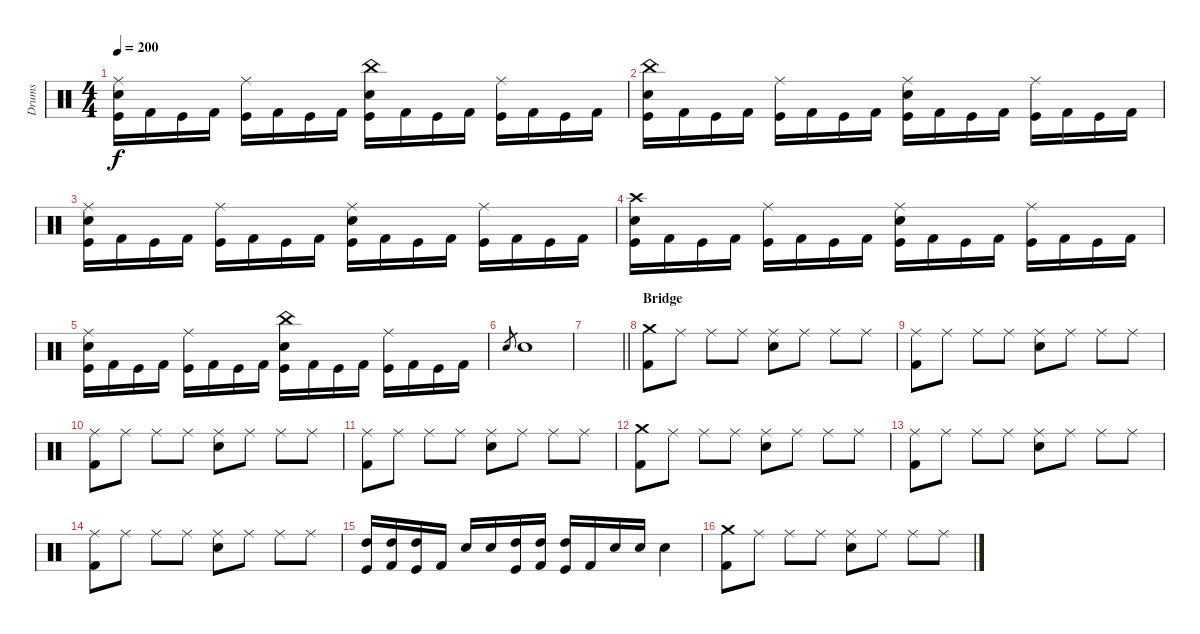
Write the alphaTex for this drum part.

\track ("Drums" "Drums") {instrument percussion}
\staff {score}
\articulation defaults
\ts (4 4)
\tempo 200
\clef neutral
\ks c
("Ride (middle)" "Electric Snare (hit)" "Kick (hit)").16{dy f} "Kick (hit) 2".16 "Kick (hit)".16 "Kick (hit) 2".16 ("Ride (middle)" "Kick (hit)").16 "Kick (hit) 2".16 "Kick (hit)".16 "Kick (hit) 2".16 ("China (hit)" "Electric Snare (hit)" "Kick (hit)").16 "Kick (hit) 2".16 "Kick (hit)".16 "Kick (hit) 2".16 ("Ride (middle)" "Kick (hit)").16 "Kick (hit) 2".16 "Kick (hit)".16 "Kick (hit) 2".16 |
("China (hit)" "Electric Snare (hit)" "Kick (hit)").16 "Kick (hit) 2".16 "Kick (hit)".16 "Kick (hit) 2".16 ("Ride (middle)" "Kick (hit)").16 "Kick (hit) 2".16 "Kick (hit)".16 "Kick (hit) 2".16 ("Ride (middle)" "Electric Snare (hit)" "Kick (hit)").16 "Kick (hit) 2".16 "Kick (hit)".16 "Kick (hit) 2".16 ("Ride (middle)" "Kick (hit)").16 "Kick (hit) 2".16 "Kick (hit)".16 "Kick (hit) 2".16 |
("Ride (middle)" "Electric Snare (hit)" "Kick (hit)").16 "Kick (hit) 2".16 "Kick (hit)".16 "Kick (hit) 2".16 ("Ride (middle)" "Kick (hit)").16 "Kick (hit) 2".16 "Kick (hit)".16 "Kick (hit) 2".16 ("Ride (middle)" "Electric Snare (hit)" "Kick (hit)").16 "Kick (hit) 2".16 "Kick (hit)".16 "Kick (hit) 2".16 ("Ride (middle)" "Kick (hit)").16 "Kick (hit) 2".16 "Kick (hit)".16 "Kick (hit) 2".16 |
("Crash high (hit)" "Electric Snare (hit)" "Kick (hit)").16 "Kick (hit) 2".16 "Kick (hit)".16 "Kick (hit) 2".16 ("Ride (middle)" "Kick (hit)").16 "Kick (hit) 2".16 "Kick (hit)".16 "Kick (hit) 2".16 ("Ride (middle)" "Electric Snare (hit)" "Kick (hit)").16 "Kick (hit) 2".16 "Kick (hit)".16 "Kick (hit) 2".16 ("Ride (middle)" "Kick (hit)").16 "Kick (hit) 2".16 "Kick (hit)".16 "Kick (hit) 2".16 |
("Ride (middle)" "Electric Snare (hit)" "Kick (hit)").16 "Kick (hit) 2".16 "Kick (hit)".16 "Kick (hit) 2".16 ("Ride (middle)" "Kick (hit)").16 "Kick (hit) 2".16 "Kick (hit)".16 "Kick (hit) 2".16 ("China (hit)" "Electric Snare (hit)" "Kick (hit)").16 "Kick (hit) 2".16 "Kick (hit)".16 "Kick (hit) 2".16 ("Ride (middle)" "Kick (hit)").16 "Kick (hit) 2".16 "Kick (hit)".16 "Kick (hit) 2".16 |
"Electric Snare (hit)".8{gr} "Electric Snare (hit)".1 |
\barLineRight lightlight
|
\section ("" "Bridge")
("Crash medium (hit)" "Kick (hit) 2").8 "Ride (middle)".8 "Ride (middle)".8 "Ride (middle)".8 ("Ride (middle)" "Electric Snare (hit)").8 "Ride (middle)".8 "Ride (middle)".8 "Ride (middle)".8 |
("Ride (middle)" "Kick (hit) 2").8 "Ride (middle)".8 "Ride (middle)".8 "Ride (middle)".8 ("Ride (middle)" "Electric Snare (hit)").8 "Ride (middle)".8 "Ride (middle)".8 "Ride (middle)".8 |
("Ride (middle)" "Kick (hit) 2").8 "Ride (middle)".8 "Ride (middle)".8 "Ride (middle)".8 ("Ride (middle)" "Electric Snare (hit)").8 "Ride (middle)".8 "Ride (middle)".8 "Ride (middle)".8 |
("Ride (middle)" "Kick (hit) 2").8 "Ride (middle)".8 "Ride (middle)".8 "Ride (middle)".8 ("Ride (middle)" "Electric Snare (hit)").8 "Ride (middle)".8 "Ride (middle)".8 "Ride (middle)".8 |
("Crash medium (hit)" "Kick (hit) 2").8 "Ride (middle)".8 "Ride (middle)".8 "Ride (middle)".8 ("Ride (middle)" "Electric Snare (hit)").8 "Ride (middle)".8 "Ride (middle)".8 "Ride (middle)".8 |
("Ride (middle)" "Kick (hit) 2").8 "Ride (middle)".8 "Ride (middle)".8 "Ride (middle)".8 ("Ride (middle)" "Electric Snare (hit)").8 "Ride (middle)".8 "Ride (middle)".8 "Ride (middle)".8 |
("Ride (middle)" "Kick (hit) 2").8 "Ride (middle)".8 "Ride (middle)".8 "Ride (middle)".8 ("Ride (middle)" "Electric Snare (hit)").8 "Ride (middle)".8 "Ride (middle)".8 "Ride (middle)".8 |
("High Tom (hit)" "Kick (hit)").16 ("High Tom (hit)" "Kick (hit) 2").16 ("High Tom (hit)" "Kick (hit)").16 "Kick (hit) 2".16 "Electric Snare (hit)".16 "Electric Snare (hit)".16 ("High Tom (hit)" "Kick (hit)").16 ("High Tom (hit)" "Kick (hit) 2").16 ("High Tom (hit)" "Kick (hit)").16 "Kick (hit) 2".16 "Electric Snare (hit)".16 "Electric Snare (hit)".16 "Electric Snare (hit)".4 |
("Crash medium (hit)" "Kick (hit) 2").8 "Ride (middle)".8 "Ride (middle)".8 "Ride (middle)".8 ("Ride (middle)" "Electric Snare (hit)").8 "Ride (middle)".8 "Ride (middle)".8 "Ride (middle)".8
